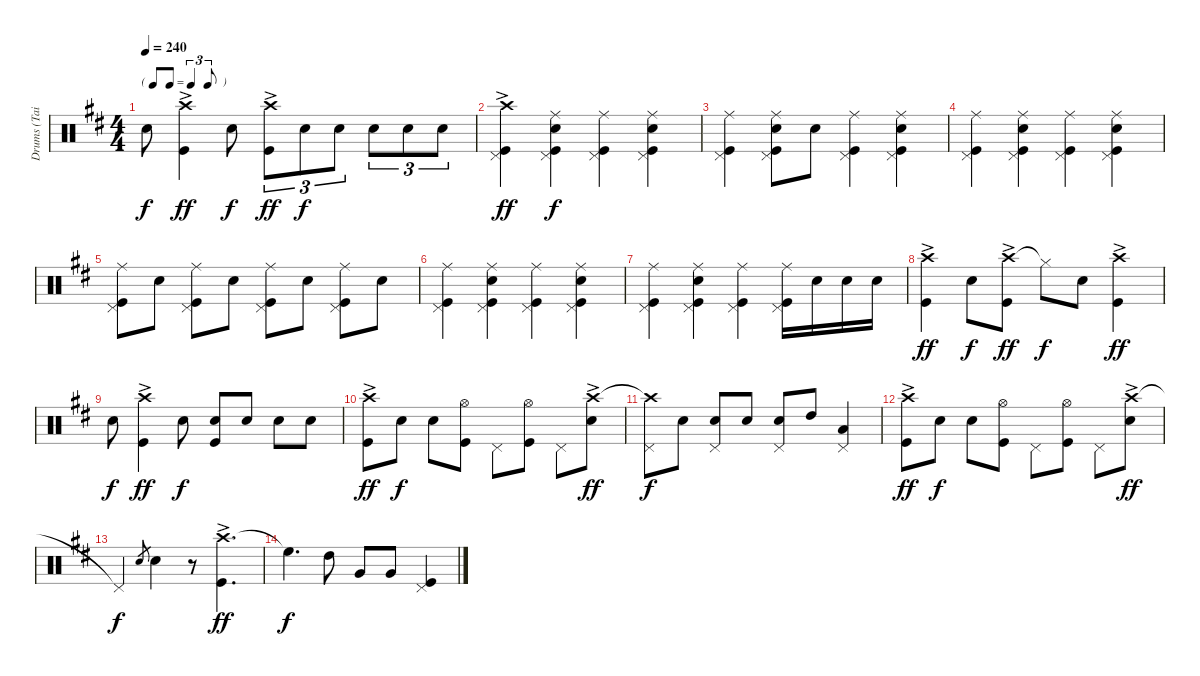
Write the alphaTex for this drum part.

\track ("Drums (Tainaka Ritsu)" "Drums (Tai") {instrument percussion}
\staff {score}
\articulation defaults
\ts (4 4)
\tf triplet8th
\tempo 240
\clef neutral
\ks d "Snare (hit) 2".8{dy f}
("Crash high (hit)"{ac} "Kick (hit)").4{dy ff} "Snare (hit) 2".8{dy f} ("Crash high (hit)"{ac} "Kick (hit)").8{tu (3 2) dy ff} "Snare (hit) 2".8{tu (3 2) dy f} "Snare (hit) 2".8{tu (3 2)} "Snare (hit) 2".8{tu (3 2)} "Snare (hit) 2".8{tu (3 2)} "Snare (hit) 2".8{tu (3 2)} |
("Crash high (hit)"{ac} "Kick (hit)" "Pedal Hi-Hat (hit)").4{dy ff} ("Ride (middle)" "Kick (hit)" "Pedal Hi-Hat (hit)" "Snare (hit) 2").4{dy f} ("Ride (middle)" "Kick (hit)" "Pedal Hi-Hat (hit)").4 ("Ride (middle)" "Kick (hit)" "Pedal Hi-Hat (hit)" "Snare (hit) 2").4 |
("Ride (middle)" "Kick (hit)" "Pedal Hi-Hat (hit)").4 ("Ride (middle)" "Snare (hit) 2" "Kick (hit)" "Pedal Hi-Hat (hit)").8 "Snare (hit) 2".8 ("Ride (middle)" "Kick (hit)" "Pedal Hi-Hat (hit)").4 ("Ride (middle)" "Snare (hit) 2" "Kick (hit)" "Pedal Hi-Hat (hit)").4 |
("Ride (middle)" "Kick (hit)" "Pedal Hi-Hat (hit)").4 ("Ride (middle)" "Kick (hit)" "Pedal Hi-Hat (hit)" "Snare (hit) 2").4 ("Ride (middle)" "Kick (hit)" "Pedal Hi-Hat (hit)").4 ("Ride (middle)" "Kick (hit)" "Pedal Hi-Hat (hit)" "Snare (hit) 2").4 |
("Ride (middle)" "Kick (hit)" "Pedal Hi-Hat (hit)").8 "Snare (hit) 2".8 ("Ride (middle)" "Kick (hit)" "Pedal Hi-Hat (hit)").8 "Snare (hit) 2".8 ("Ride (middle)" "Kick (hit)" "Pedal Hi-Hat (hit)").8 "Snare (hit) 2".8 ("Ride (middle)" "Kick (hit)" "Pedal Hi-Hat (hit)").8 "Snare (hit) 2".8 |
("Ride (middle)" "Kick (hit)" "Pedal Hi-Hat (hit)").4 ("Ride (middle)" "Kick (hit)" "Pedal Hi-Hat (hit)" "Snare (hit) 2").4 ("Ride (middle)" "Kick (hit)" "Pedal Hi-Hat (hit)").4 ("Ride (middle)" "Kick (hit)" "Pedal Hi-Hat (hit)" "Snare (hit) 2").4 |
("Ride (middle)" "Kick (hit)" "Pedal Hi-Hat (hit)").4 ("Ride (middle)" "Kick (hit)" "Pedal Hi-Hat (hit)" "Snare (hit) 2").4 ("Ride (middle)" "Kick (hit)" "Pedal Hi-Hat (hit)").4 ("Ride (middle)" "Kick (hit)" "Pedal Hi-Hat (hit)").16 "Snare (hit) 2".16 "Snare (hit) 2".16 "Snare (hit) 2".16 |
("Crash high (hit)"{ac} "Kick (hit)").4{dy ff} "Snare (hit) 2".8{dy f} ("Crash high (hit)"{ac} "Kick (hit)").8{dy ff} "Hi-Hat (closed)"{t}.8{dy f} "Snare (hit) 2".8 ("Crash high (hit)"{ac} "Kick (hit)").4{dy ff} |
"Snare (hit) 2".8{dy f} ("Crash high (hit)"{ac} "Kick (hit)").4{dy ff} "Snare (hit) 2".8{dy f} ("Snare (hit) 2" "Kick (hit)").8 "Snare (hit) 2".8 "Snare (hit) 2".8 "Snare (hit) 2".8 |
("Crash high (hit)"{ac} "Kick (hit)").8{dy ff} "Snare (hit) 2".8{dy f} "Snare (hit) 2".8 ("Hi-Hat (open)" "Kick (hit)").8 "Pedal Hi-Hat (hit)".8 ("Hi-Hat (open)" "Kick (hit)").8 "Pedal Hi-Hat (hit)".8 ("Crash high (hit)"{ac} "Snare (hit) 2").8{dy ff} |
("Crash high (hit)"{t} "Pedal Hi-Hat (hit)").8{dy f} "Snare (hit) 2".8 ("Snare (hit) 2" "Pedal Hi-Hat (hit)").8 "Snare (hit) 2".8 ("Snare (hit) 2" "Pedal Hi-Hat (hit)").8 "High Tom (hit)".8 ("Low Tom (hit)" "Pedal Hi-Hat (hit)").4 |
("Crash high (hit)"{ac} "Kick (hit)").8{dy ff} "Snare (hit) 2".8{dy f} "Snare (hit) 2".8 ("Hi-Hat (open)" "Kick (hit)").8 "Pedal Hi-Hat (hit)".8 ("Hi-Hat (open)" "Kick (hit)").8 "Pedal Hi-Hat (hit)".8 ("Crash high (hit)"{ac} "Snare (hit) 2").8{dy ff} |
"Pedal Hi-Hat (hit)"{t}.4{dy f} "Snare (hit) 2".8{gr} "Snare (hit) 2".4 r.8 ("Crash high (hit)"{ac} "Kick (hit)").4{d dy ff} |
"High Floor Tom (hit)"{t}.4{d dy f} "High Tom (hit)".8 "Very Low Tom (hit)".8 "Very Low Tom (hit)".8 ("Kick (hit)" "Pedal Hi-Hat (hit)").4
